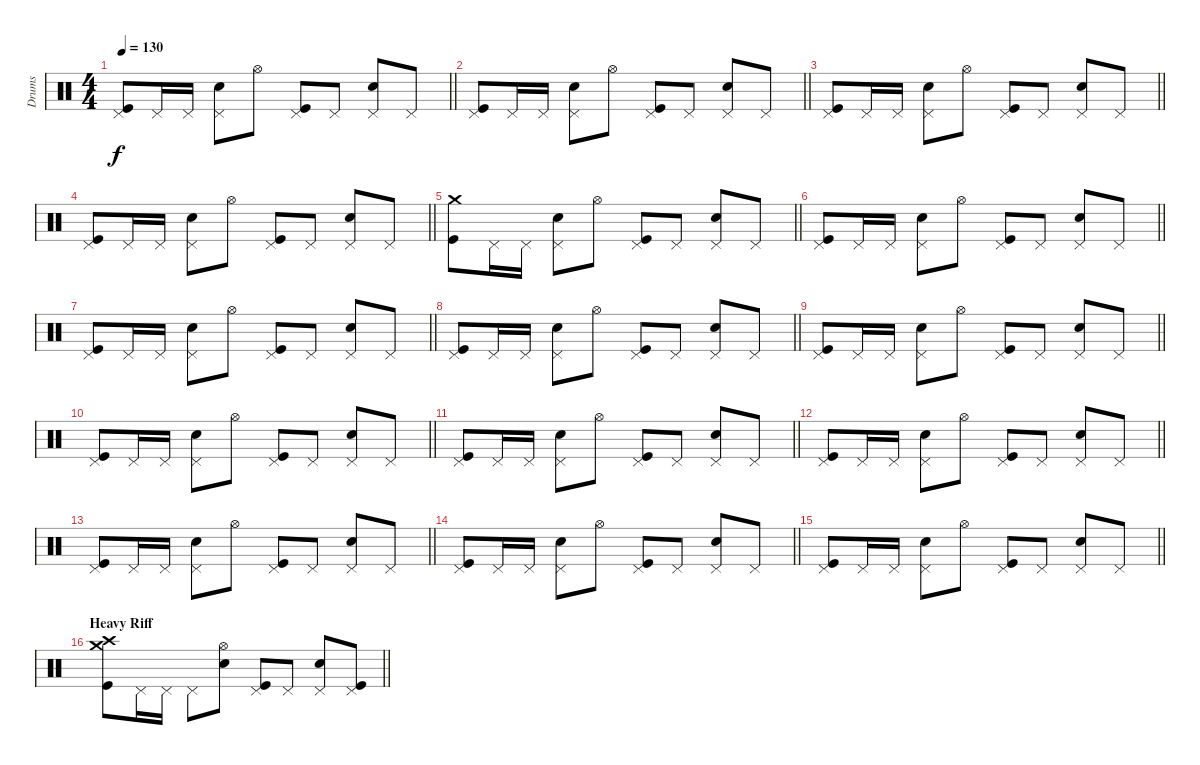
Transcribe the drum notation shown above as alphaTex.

\track ("Drums" "Drums") {instrument percussion}
\staff {score}
\articulation defaults
\ts (4 4)
\tempo 130
\clef neutral
\barLineRight lightlight
\ks c
("Pedal Hi-Hat (hit)" "Kick (hit)").8{dy f} "Pedal Hi-Hat (hit)".16 "Pedal Hi-Hat (hit)".16 ("Pedal Hi-Hat (hit)" "Snare (hit) 2").8 "Hi-Hat (open)".8 ("Pedal Hi-Hat (hit)" "Kick (hit)").8 "Pedal Hi-Hat (hit)".8 ("Pedal Hi-Hat (hit)" "Snare (hit) 2").8 "Pedal Hi-Hat (hit)".8 |
\barLineRight lightlight
("Pedal Hi-Hat (hit)" "Kick (hit)").8 "Pedal Hi-Hat (hit)".16 "Pedal Hi-Hat (hit)".16 ("Pedal Hi-Hat (hit)" "Snare (hit) 2").8 "Hi-Hat (open)".8 ("Pedal Hi-Hat (hit)" "Kick (hit)").8 "Pedal Hi-Hat (hit)".8 ("Pedal Hi-Hat (hit)" "Snare (hit) 2").8 "Pedal Hi-Hat (hit)".8 |
\barLineRight lightlight
("Pedal Hi-Hat (hit)" "Kick (hit)").8 "Pedal Hi-Hat (hit)".16 "Pedal Hi-Hat (hit)".16 ("Pedal Hi-Hat (hit)" "Snare (hit) 2").8 "Hi-Hat (open)".8 ("Pedal Hi-Hat (hit)" "Kick (hit)").8 "Pedal Hi-Hat (hit)".8 ("Pedal Hi-Hat (hit)" "Snare (hit) 2").8 "Pedal Hi-Hat (hit)".8 |
\barLineRight lightlight
("Pedal Hi-Hat (hit)" "Kick (hit)").8 "Pedal Hi-Hat (hit)".16 "Pedal Hi-Hat (hit)".16 ("Pedal Hi-Hat (hit)" "Snare (hit) 2").8 "Hi-Hat (open)".8 ("Pedal Hi-Hat (hit)" "Kick (hit)").8 "Pedal Hi-Hat (hit)".8 ("Pedal Hi-Hat (hit)" "Snare (hit) 2").8 "Pedal Hi-Hat (hit)".8 |
\barLineRight lightlight
("Kick (hit)" "Crash medium (hit)").8 "Pedal Hi-Hat (hit)".16 "Pedal Hi-Hat (hit)".16 ("Pedal Hi-Hat (hit)" "Snare (hit) 2").8 "Hi-Hat (open)".8 ("Pedal Hi-Hat (hit)" "Kick (hit)").8 "Pedal Hi-Hat (hit)".8 ("Pedal Hi-Hat (hit)" "Snare (hit) 2").8 "Pedal Hi-Hat (hit)".8 |
\barLineRight lightlight
("Pedal Hi-Hat (hit)" "Kick (hit)").8 "Pedal Hi-Hat (hit)".16 "Pedal Hi-Hat (hit)".16 ("Pedal Hi-Hat (hit)" "Snare (hit) 2").8 "Hi-Hat (open)".8 ("Pedal Hi-Hat (hit)" "Kick (hit)").8 "Pedal Hi-Hat (hit)".8 ("Pedal Hi-Hat (hit)" "Snare (hit) 2").8 "Pedal Hi-Hat (hit)".8 |
\barLineRight lightlight
("Pedal Hi-Hat (hit)" "Kick (hit)").8 "Pedal Hi-Hat (hit)".16 "Pedal Hi-Hat (hit)".16 ("Pedal Hi-Hat (hit)" "Snare (hit) 2").8 "Hi-Hat (open)".8 ("Pedal Hi-Hat (hit)" "Kick (hit)").8 "Pedal Hi-Hat (hit)".8 ("Pedal Hi-Hat (hit)" "Snare (hit) 2").8 "Pedal Hi-Hat (hit)".8 |
\barLineRight lightlight
("Pedal Hi-Hat (hit)" "Kick (hit)").8 "Pedal Hi-Hat (hit)".16 "Pedal Hi-Hat (hit)".16 ("Pedal Hi-Hat (hit)" "Snare (hit) 2").8 "Hi-Hat (open)".8 ("Pedal Hi-Hat (hit)" "Kick (hit)").8 "Pedal Hi-Hat (hit)".8 ("Pedal Hi-Hat (hit)" "Snare (hit) 2").8 "Pedal Hi-Hat (hit)".8 |
\barLineRight lightlight
("Pedal Hi-Hat (hit)" "Kick (hit)").8 "Pedal Hi-Hat (hit)".16 "Pedal Hi-Hat (hit)".16 ("Pedal Hi-Hat (hit)" "Snare (hit) 2").8 "Hi-Hat (open)".8 ("Pedal Hi-Hat (hit)" "Kick (hit)").8 "Pedal Hi-Hat (hit)".8 ("Pedal Hi-Hat (hit)" "Snare (hit) 2").8 "Pedal Hi-Hat (hit)".8 |
\barLineRight lightlight
("Pedal Hi-Hat (hit)" "Kick (hit)").8 "Pedal Hi-Hat (hit)".16 "Pedal Hi-Hat (hit)".16 ("Pedal Hi-Hat (hit)" "Snare (hit) 2").8 "Hi-Hat (open)".8 ("Pedal Hi-Hat (hit)" "Kick (hit)").8 "Pedal Hi-Hat (hit)".8 ("Pedal Hi-Hat (hit)" "Snare (hit) 2").8 "Pedal Hi-Hat (hit)".8 |
\barLineRight lightlight
("Pedal Hi-Hat (hit)" "Kick (hit)").8 "Pedal Hi-Hat (hit)".16 "Pedal Hi-Hat (hit)".16 ("Pedal Hi-Hat (hit)" "Snare (hit) 2").8 "Hi-Hat (open)".8 ("Pedal Hi-Hat (hit)" "Kick (hit)").8 "Pedal Hi-Hat (hit)".8 ("Pedal Hi-Hat (hit)" "Snare (hit) 2").8 "Pedal Hi-Hat (hit)".8 |
\barLineRight lightlight
("Pedal Hi-Hat (hit)" "Kick (hit)").8 "Pedal Hi-Hat (hit)".16 "Pedal Hi-Hat (hit)".16 ("Pedal Hi-Hat (hit)" "Snare (hit) 2").8 "Hi-Hat (open)".8 ("Pedal Hi-Hat (hit)" "Kick (hit)").8 "Pedal Hi-Hat (hit)".8 ("Pedal Hi-Hat (hit)" "Snare (hit) 2").8 "Pedal Hi-Hat (hit)".8 |
\barLineRight lightlight
("Pedal Hi-Hat (hit)" "Kick (hit)").8 "Pedal Hi-Hat (hit)".16 "Pedal Hi-Hat (hit)".16 ("Pedal Hi-Hat (hit)" "Snare (hit) 2").8 "Hi-Hat (open)".8 ("Pedal Hi-Hat (hit)" "Kick (hit)").8 "Pedal Hi-Hat (hit)".8 ("Pedal Hi-Hat (hit)" "Snare (hit) 2").8 "Pedal Hi-Hat (hit)".8 |
\barLineRight lightlight
("Pedal Hi-Hat (hit)" "Kick (hit)").8 "Pedal Hi-Hat (hit)".16 "Pedal Hi-Hat (hit)".16 ("Pedal Hi-Hat (hit)" "Snare (hit) 2").8 "Hi-Hat (open)".8 ("Pedal Hi-Hat (hit)" "Kick (hit)").8 "Pedal Hi-Hat (hit)".8 ("Pedal Hi-Hat (hit)" "Snare (hit) 2").8 "Pedal Hi-Hat (hit)".8 |
\barLineRight lightlight
("Pedal Hi-Hat (hit)" "Kick (hit)").8 "Pedal Hi-Hat (hit)".16 "Pedal Hi-Hat (hit)".16 ("Pedal Hi-Hat (hit)" "Snare (hit) 2").8 "Hi-Hat (open)".8 ("Pedal Hi-Hat (hit)" "Kick (hit)").8 "Pedal Hi-Hat (hit)".8 ("Pedal Hi-Hat (hit)" "Snare (hit) 2").8 "Pedal Hi-Hat (hit)".8 |
\section ("" "Heavy Riff")
\barLineRight lightlight
("Kick (hit)" "Crash high (hit)" "Crash medium (hit)").8 "Pedal Hi-Hat (hit)".16 "Pedal Hi-Hat (hit)".16 "Pedal Hi-Hat (hit)".8 ("Hi-Hat (open)" "Snare (hit) 2").8 ("Pedal Hi-Hat (hit)" "Kick (hit)").8 "Pedal Hi-Hat (hit)".8 ("Pedal Hi-Hat (hit)" "Snare (hit) 2").8 ("Pedal Hi-Hat (hit)" "Kick (hit)").8
